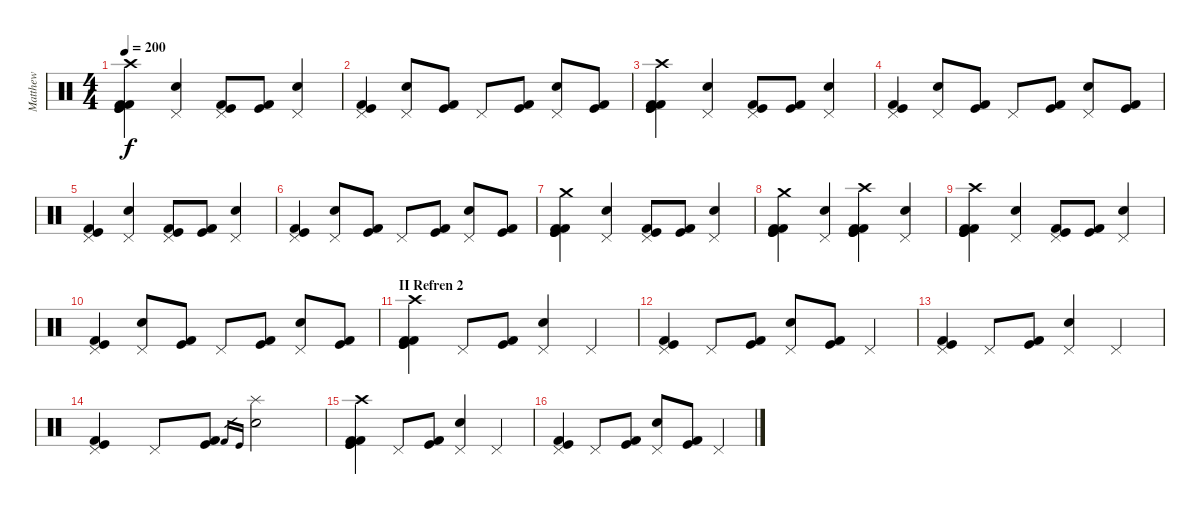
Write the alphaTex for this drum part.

\track ("Matthew" "Matthew") {instrument percussion}
\staff {score}
\articulation defaults
\ts (4 4)
\tempo 200
\clef neutral
\ks c
("Kick (hit)" "Kick (hit) 2" "Kick (hit)" "Kick (hit) 2" "Crash high (hit)").4{dy f} ("Snare (hit) 2" "Pedal Hi-Hat (hit)").4 ("Kick (hit) 2" "Pedal Hi-Hat (hit)" "Kick (hit)").8 ("Kick (hit)" "Kick (hit) 2").8 ("Snare (hit) 2" "Pedal Hi-Hat (hit)").4 |
("Kick (hit) 2" "Kick (hit)" "Pedal Hi-Hat (hit)").4 ("Snare (hit) 2" "Pedal Hi-Hat (hit)").8 ("Kick (hit) 2" "Kick (hit)").8 "Pedal Hi-Hat (hit)".8 ("Kick (hit) 2" "Kick (hit)").8 ("Snare (hit) 2" "Pedal Hi-Hat (hit)").8 ("Kick (hit)" "Kick (hit) 2").8 |
("Kick (hit)" "Kick (hit) 2" "Kick (hit)" "Kick (hit) 2" "Crash high (hit)").4 ("Snare (hit) 2" "Pedal Hi-Hat (hit)").4 ("Kick (hit) 2" "Pedal Hi-Hat (hit)" "Kick (hit)").8 ("Kick (hit)" "Kick (hit) 2").8 ("Snare (hit) 2" "Pedal Hi-Hat (hit)").4 |
("Kick (hit) 2" "Kick (hit)" "Pedal Hi-Hat (hit)").4 ("Snare (hit) 2" "Pedal Hi-Hat (hit)").8 ("Kick (hit) 2" "Kick (hit)").8 "Pedal Hi-Hat (hit)".8 ("Kick (hit) 2" "Kick (hit)").8 ("Snare (hit) 2" "Pedal Hi-Hat (hit)").8 ("Kick (hit)" "Kick (hit) 2").8 |
("Kick (hit)" "Kick (hit) 2" "Pedal Hi-Hat (hit)").4 ("Snare (hit) 2" "Pedal Hi-Hat (hit)").4 ("Kick (hit) 2" "Pedal Hi-Hat (hit)" "Kick (hit)").8 ("Kick (hit)" "Kick (hit) 2").8 ("Snare (hit) 2" "Pedal Hi-Hat (hit)").4 |
("Kick (hit) 2" "Kick (hit)" "Pedal Hi-Hat (hit)").4 ("Snare (hit) 2" "Pedal Hi-Hat (hit)").8 ("Kick (hit) 2" "Kick (hit)").8 "Pedal Hi-Hat (hit)".8 ("Kick (hit) 2" "Kick (hit)").8 ("Snare (hit) 2" "Pedal Hi-Hat (hit)").8 ("Kick (hit)" "Kick (hit) 2").8 |
("Kick (hit)" "Kick (hit) 2" "Kick (hit)" "Kick (hit) 2" "Crash medium (hit)").4 ("Snare (hit) 2" "Pedal Hi-Hat (hit)").4 ("Kick (hit) 2" "Pedal Hi-Hat (hit)" "Kick (hit)").8 ("Kick (hit)" "Kick (hit) 2").8 ("Snare (hit) 2" "Pedal Hi-Hat (hit)").4 |
("Kick (hit)" "Kick (hit) 2" "Kick (hit)" "Kick (hit) 2" "Crash medium (hit)").4 ("Snare (hit) 2" "Pedal Hi-Hat (hit)").4 ("Kick (hit) 2" "Crash high (hit)" "Kick (hit)" "Kick (hit) 2" "Kick (hit)").4 ("Snare (hit) 2" "Pedal Hi-Hat (hit)").4 |
("Kick (hit)" "Kick (hit) 2" "Kick (hit)" "Kick (hit) 2" "Crash high (hit)").4 ("Snare (hit) 2" "Pedal Hi-Hat (hit)").4 ("Kick (hit) 2" "Pedal Hi-Hat (hit)" "Kick (hit)").8 ("Kick (hit)" "Kick (hit) 2").8 ("Snare (hit) 2" "Pedal Hi-Hat (hit)").4 |
("Kick (hit) 2" "Kick (hit)" "Pedal Hi-Hat (hit)").4 ("Snare (hit) 2" "Pedal Hi-Hat (hit)").8 ("Kick (hit) 2" "Kick (hit)").8 "Pedal Hi-Hat (hit)".8 ("Kick (hit) 2" "Kick (hit)").8 ("Snare (hit) 2" "Pedal Hi-Hat (hit)").8 ("Kick (hit)" "Kick (hit) 2").8 |
\section ("" "II Refren 2")
("Kick (hit) 2" "Kick (hit)" "Kick (hit) 2" "Kick (hit)" "Crash high (hit)").4 "Pedal Hi-Hat (hit)".8 ("Kick (hit) 2" "Kick (hit)").8 ("Pedal Hi-Hat (hit)" "Snare (hit) 2").4 "Pedal Hi-Hat (hit)".4 |
("Kick (hit) 2" "Kick (hit)" "Pedal Hi-Hat (hit)").4 "Pedal Hi-Hat (hit)".8 ("Kick (hit) 2" "Kick (hit)").8 ("Pedal Hi-Hat (hit)" "Snare (hit) 2").8 ("Kick (hit) 2" "Kick (hit)").8 "Pedal Hi-Hat (hit)".4 |
("Kick (hit) 2" "Kick (hit)" "Pedal Hi-Hat (hit)").4 "Pedal Hi-Hat (hit)".8 ("Kick (hit) 2" "Kick (hit)").8 ("Pedal Hi-Hat (hit)" "Snare (hit) 2").4 "Pedal Hi-Hat (hit)".4 |
("Kick (hit) 2" "Kick (hit)" "Pedal Hi-Hat (hit)").4 "Pedal Hi-Hat (hit)".8 ("Kick (hit) 2" "Kick (hit)").8 "Kick (hit) 2".16{gr} "Kick (hit)".16{gr} ("Snare (hit) 2" "Splash (hit)").2 |
("Kick (hit) 2" "Kick (hit)" "Kick (hit) 2" "Kick (hit)" "Crash high (hit)").4 "Pedal Hi-Hat (hit)".8 ("Kick (hit) 2" "Kick (hit)").8 ("Pedal Hi-Hat (hit)" "Snare (hit) 2").4 "Pedal Hi-Hat (hit)".4 |
("Kick (hit) 2" "Kick (hit)" "Pedal Hi-Hat (hit)").4 "Pedal Hi-Hat (hit)".8 ("Kick (hit) 2" "Kick (hit)").8 ("Pedal Hi-Hat (hit)" "Snare (hit) 2").8 ("Kick (hit) 2" "Kick (hit)").8 "Pedal Hi-Hat (hit)".4
